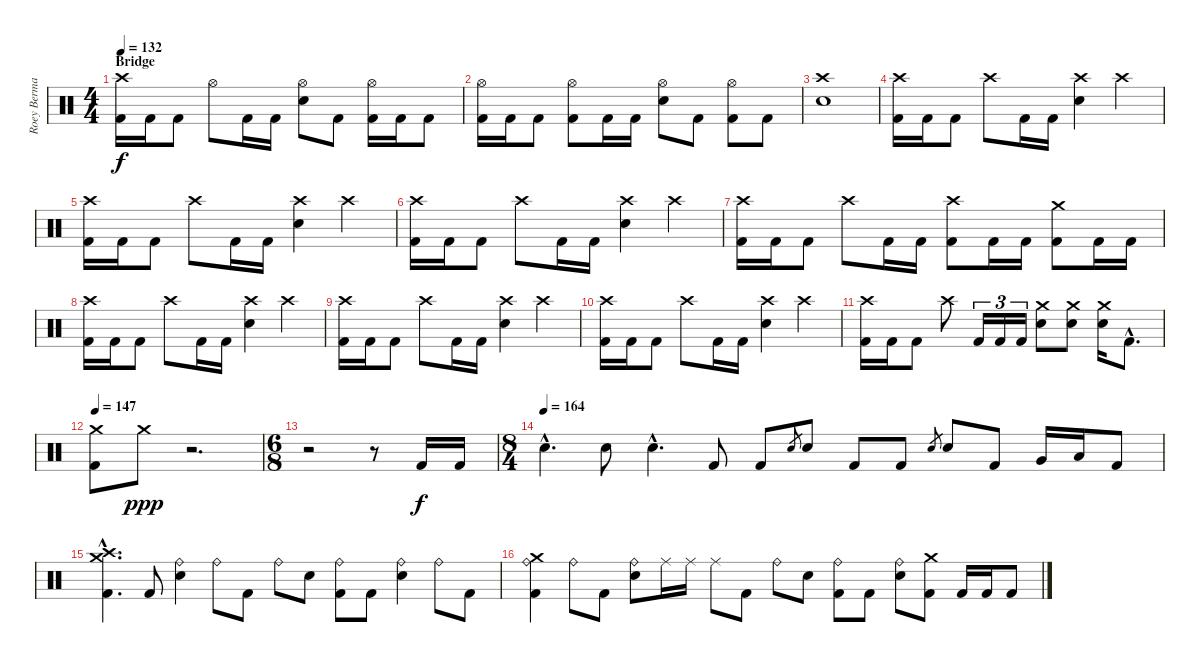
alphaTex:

\track ("Roey Berman" "Roey Berma") {instrument percussion}
\staff {score}
\articulation defaults
\ts (4 4)
\section ("" "Bridge")
\tempo 132
\clef neutral
\ks c
("Crash high (hit)" "Kick (hit) 2").16{dy f} "Kick (hit) 2".16 "Kick (hit) 2".8 "Hi-Hat (open)".8 "Kick (hit) 2".16 "Kick (hit) 2".16 ("Hi-Hat (open)" "Electric Snare (hit)").8 "Kick (hit) 2".8 ("Hi-Hat (open)" "Kick (hit) 2").16 "Kick (hit) 2".16 "Kick (hit) 2".8 |
("Hi-Hat (open)" "Kick (hit) 2").16 "Kick (hit) 2".16 "Kick (hit) 2".8 ("Hi-Hat (open)" "Kick (hit) 2").8 "Kick (hit) 2".16 "Kick (hit) 2".16 ("Hi-Hat (open)" "Electric Snare (hit)").8 "Kick (hit) 2".8 ("Hi-Hat (open)" "Kick (hit) 2").8 "Kick (hit) 2".8 |
("Crash high (hit)" "Electric Snare (hit)").1 |
("Crash high (hit)" "Kick (hit) 2").16 "Kick (hit) 2".16 "Kick (hit) 2".8 "Crash high (hit)".8 "Kick (hit) 2".16 "Kick (hit) 2".16 ("Crash high (hit)" "Electric Snare (hit)").4 "Crash high (hit)".4 |
("Crash high (hit)" "Kick (hit) 2").16 "Kick (hit) 2".16 "Kick (hit) 2".8 "Crash high (hit)".8 "Kick (hit) 2".16 "Kick (hit) 2".16 ("Crash high (hit)" "Electric Snare (hit)").4 "Crash high (hit)".4 |
("Crash high (hit)" "Kick (hit) 2").16 "Kick (hit) 2".16 "Kick (hit) 2".8 "Crash high (hit)".8 "Kick (hit) 2".16 "Kick (hit) 2".16 ("Crash high (hit)" "Electric Snare (hit)").4 "Crash high (hit)".4 |
("Crash high (hit)" "Kick (hit) 2").16 "Kick (hit) 2".16 "Kick (hit) 2".8 "Crash high (hit)".8 "Kick (hit) 2".16 "Kick (hit) 2".16 ("Crash high (hit)" "Kick (hit) 2").8 "Kick (hit) 2".16 "Kick (hit) 2".16 ("Crash medium (hit)" "Kick (hit) 2").8 "Kick (hit) 2".16 "Kick (hit) 2".16 |
("Crash high (hit)" "Kick (hit) 2").16 "Kick (hit) 2".16 "Kick (hit) 2".8 "Crash high (hit)".8 "Kick (hit) 2".16 "Kick (hit) 2".16 ("Crash high (hit)" "Electric Snare (hit)").4 "Crash high (hit)".4 |
("Crash high (hit)" "Kick (hit) 2").16 "Kick (hit) 2".16 "Kick (hit) 2".8 "Crash high (hit)".8 "Kick (hit) 2".16 "Kick (hit) 2".16 ("Crash high (hit)" "Electric Snare (hit)").4 "Crash high (hit)".4 |
("Crash high (hit)" "Kick (hit) 2").16 "Kick (hit) 2".16 "Kick (hit) 2".8 "Crash high (hit)".8 "Kick (hit) 2".16 "Kick (hit) 2".16 ("Crash high (hit)" "Electric Snare (hit)").4 "Crash high (hit)".4 |
("Crash high (hit)" "Kick (hit) 2").16 "Kick (hit) 2".16 "Kick (hit) 2".8 "Crash high (hit)".8 "Kick (hit) 2".16{tu (3 2)} "Kick (hit) 2".16{tu (3 2)} "Kick (hit) 2".16{tu (3 2)} ("Crash medium (hit)" "Electric Snare (hit)").8 ("Crash medium (hit)" "Electric Snare (hit)").8 ("Crash medium (hit)" "Electric Snare (hit)").16 "Kick (hit) 2"{hac}.8{d} |
\tempo 147
("Crash medium (hit)" "Kick (hit) 2").8 "Crash medium (hit)".8{dy ppp} r.2{d} |
\ts (6 8)
r.2 r.8 "Kick (hit) 2".16{dy f} "Kick (hit) 2".16 |
\ts (8 4)
\section ("" "")
\tempo (164)
"Electric Snare (hit)"{hac}.4{d} "Electric Snare (hit)".8 "Electric Snare (hit)"{hac}.4{d} "Kick (hit) 2".8 "Kick (hit) 2".8 "Electric Snare (hit)".8{gr} "Electric Snare (hit)".8 "Kick (hit) 2".8 "Kick (hit) 2".8 "Electric Snare (hit)".8{gr} "Electric Snare (hit)".8 "Kick (hit) 2".8 "Very Low Tom (hit)".16 "Low Floor Tom (hit)".16 "Kick (hit) 2".8 |
("Crash medium (hit)"{hac} "Crash high (hit)"{hac} "Kick (hit) 2"{hac}).4{d} "Kick (hit) 2".8 ("Ride (bell)" "Electric Snare (hit)").4 "Ride (bell)".8 "Kick (hit) 2".8 "Ride (bell)".8 "Electric Snare (hit)".8 ("Ride (bell)" "Kick (hit) 2").8 "Kick (hit) 2".8 ("Ride (bell)" "Electric Snare (hit)").4 "Ride (bell)".8 "Kick (hit) 2".8 |
("Crash medium (hit)" "Ride (bell)" "Kick (hit) 2").4 "Ride (bell)".8 "Kick (hit) 2".8 ("Ride (bell)" "Electric Snare (hit)").8 "Ride (middle)".16 "Ride (middle)".16 "Ride (middle)".8 "Kick (hit) 2".8 "Ride (bell)".8 "Electric Snare (hit)".8 ("Ride (bell)" "Kick (hit) 2").8 "Kick (hit) 2".8 ("Ride (bell)" "Electric Snare (hit)").8 ("Crash medium (hit)" "Kick (hit) 2").8 "Kick (hit) 2".16 "Kick (hit) 2".16 "Kick (hit) 2".8
